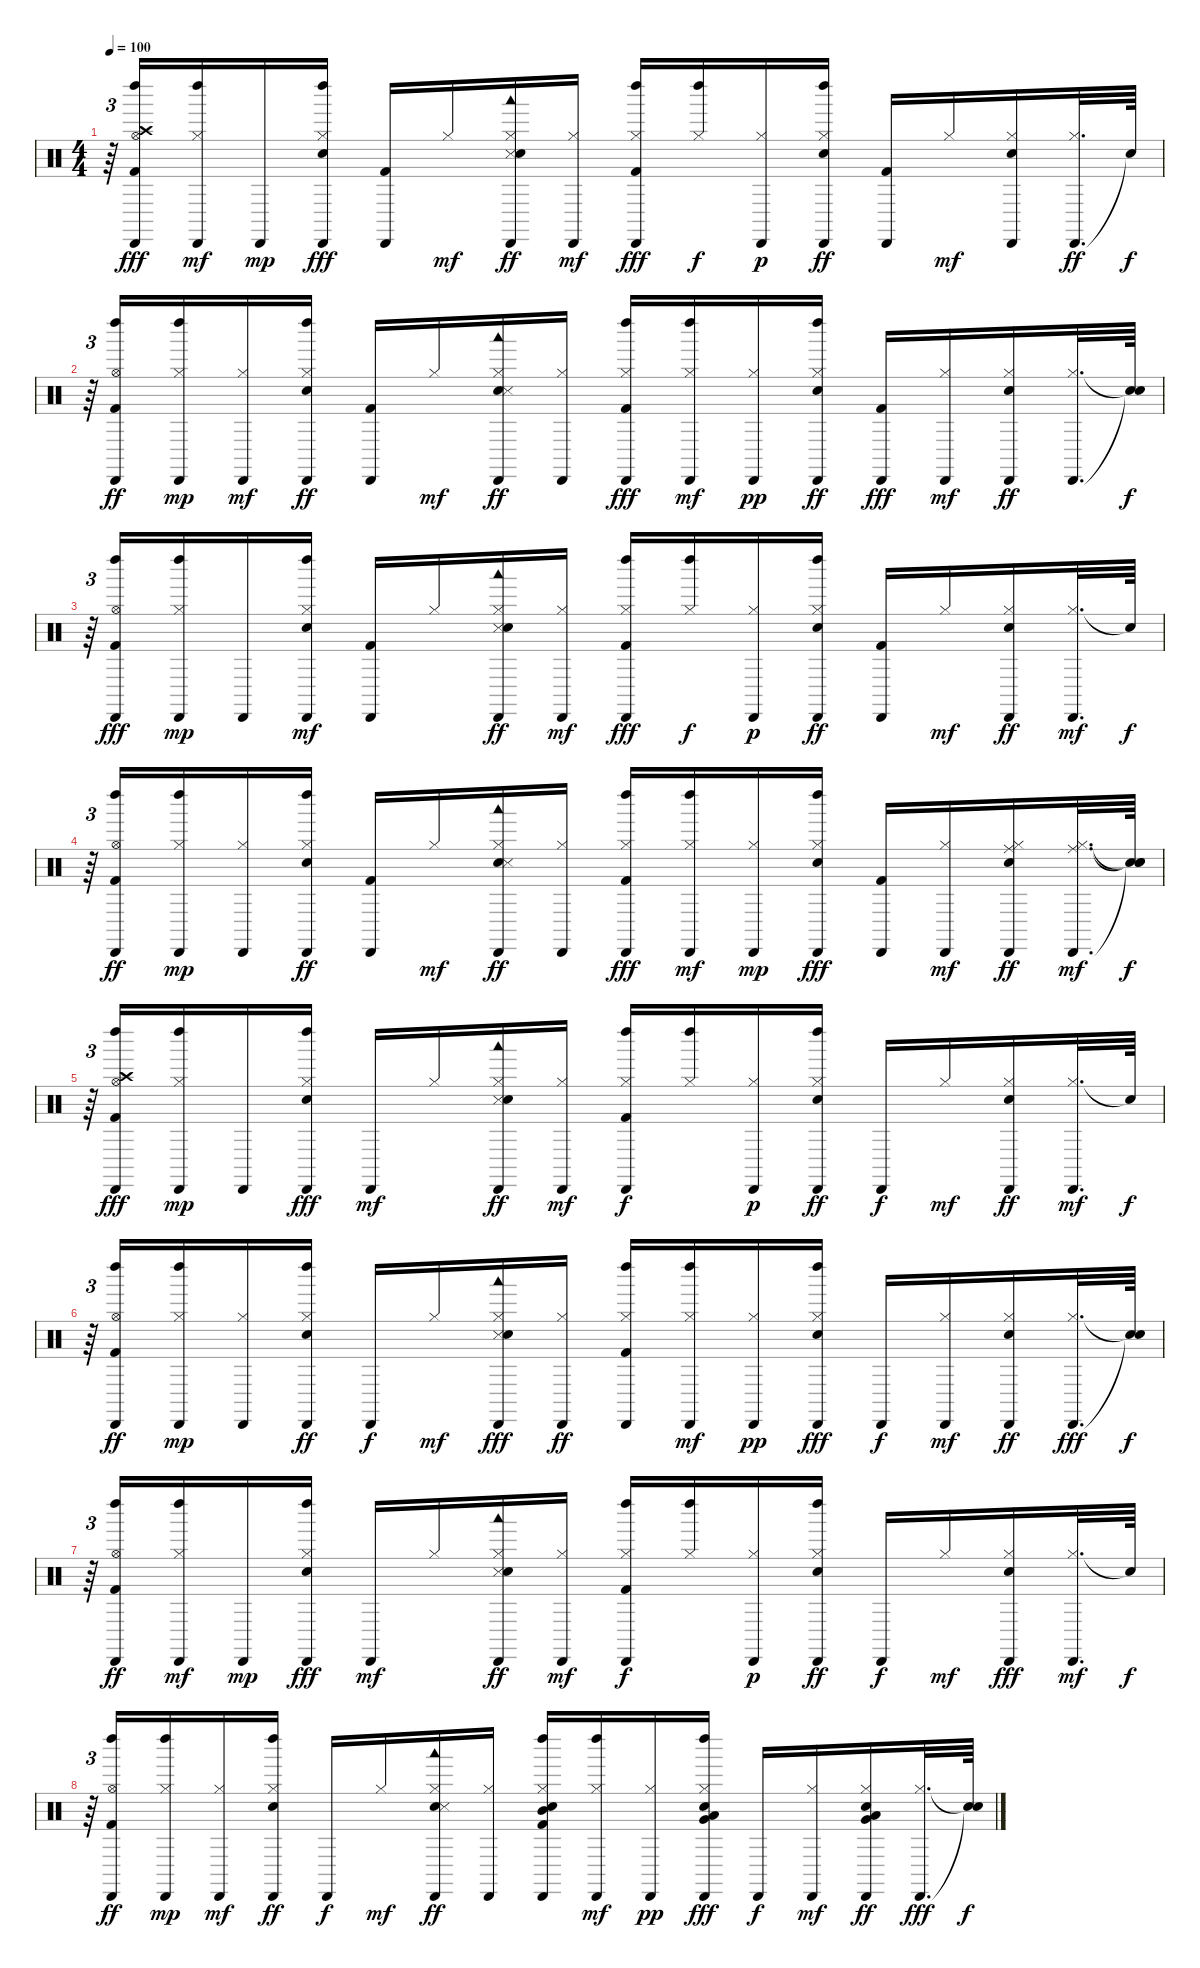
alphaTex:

\track "" {instrument percussion}
\staff {score}
\articulation defaults
\ts (4 4)
\tempo 100
\clef neutral
\ks c
r.64{tu (3 2) dy f} ("Hi-Hat (open)" "Kick (hit) 2" "Crash high (hit)" "Left Maraca (hit)" "Cabasa (hit)").16{dy fff} ("Left Maraca (hit)" "Hi-Hat (closed)" "Cabasa (hit)").16{dy mf} "Cabasa (hit)".16{dy mp} ("Cabasa (hit)" "Left Maraca (hit)" "Hi-Hat (closed)" "Electric Snare (hit)").16{dy fff} ("Cabasa (hit)" "Kick (hit) 2").16 "Hi-Hat (closed)".16{dy mf} ("Snare (side stick) 3" "Woodblock low (hit)" "Electric Snare (hit)" "Cabasa (hit)" "Hi-Hat (closed)").16{dy ff} ("Hi-Hat (closed)" "Cabasa (hit)").16{dy mf} ("Left Maraca (hit)" "Cabasa (hit)" "Kick (hit) 2" "Hi-Hat (closed)").16{dy fff} ("Left Maraca (hit)" "Hi-Hat (closed)").16{dy f} ("Cabasa (hit)" "Hi-Hat (closed)").16{dy p} ("Electric Snare (hit)" "Left Maraca (hit)" "Cabasa (hit)" "Hi-Hat (closed)").16{dy ff} ("Kick (hit) 2" "Cabasa (hit)").16 "Hi-Hat (closed)".16{dy mf} ("Electric Snare (hit)" "Hi-Hat (closed)" "Cabasa (hit)").16 ("Cabasa (hit)" "Hi-Hat (closed)").32{d dy ff} "Snare (hit)"{t}.64{dy f} |
r.64{tu (3 2)} ("Hi-Hat (open)" "Kick (hit) 2" "Cabasa (hit)" "Left Maraca (hit)").16{dy ff} ("Hi-Hat (closed)" "Cabasa (hit)" "Left Maraca (hit)").16{dy mp} ("Cabasa (hit)" "Hi-Hat (closed)").16{dy mf} ("Hi-Hat (closed)" "Left Maraca (hit)" "Cabasa (hit)" "Electric Snare (hit)").16{dy ff} ("Cabasa (hit)" "Kick (hit) 2").16 "Hi-Hat (closed)".16{dy mf} ("Electric Snare (hit)" "Hi-Hat (closed)" "Snare (side stick) 3" "Cabasa (hit)" "Woodblock low (hit)").16{dy ff} ("Cabasa (hit)" "Hi-Hat (closed)").16 ("Kick (hit) 2" "Hi-Hat (closed)" "Cabasa (hit)" "Left Maraca (hit)").16{dy fff} ("Hi-Hat (closed)" "Cabasa (hit)" "Left Maraca (hit)").16{dy mf} ("Cabasa (hit)" "Hi-Hat (closed)").16{dy pp} ("Hi-Hat (closed)" "Electric Snare (hit)" "Cabasa (hit)" "Left Maraca (hit)").16{dy ff} ("Cabasa (hit)" "Kick (hit) 2").16{dy fff} ("Hi-Hat (closed)" "Cabasa (hit)").16{dy mf} ("Cabasa (hit)" "Electric Snare (hit)" "Hi-Hat (closed)").16{dy ff} ("Hi-Hat (closed)" "Cabasa (hit)").32{d} ("Snare (hit)"{t} "Snare (hit)"{t}).64{dy f} |
r.64{tu (3 2)} ("Cabasa (hit)" "Hi-Hat (open)" "Kick (hit) 2" "Left Maraca (hit)").16{dy fff} ("Cabasa (hit)" "Hi-Hat (closed)" "Left Maraca (hit)").16{dy mp} "Cabasa (hit)".16 ("Cabasa (hit)" "Hi-Hat (closed)" "Electric Snare (hit)" "Left Maraca (hit)").16{dy mf} ("Kick (hit) 2" "Cabasa (hit)").16 "Hi-Hat (closed)".16 ("Snare (side stick) 3" "Electric Snare (hit)" "Hi-Hat (closed)" "Cabasa (hit)" "Woodblock low (hit)").16{dy ff} ("Hi-Hat (closed)" "Cabasa (hit)").16{dy mf} ("Cabasa (hit)" "Hi-Hat (closed)" "Kick (hit) 2" "Left Maraca (hit)").16{dy fff} ("Hi-Hat (closed)" "Left Maraca (hit)").16{dy f} ("Cabasa (hit)" "Hi-Hat (closed)").16{dy p} ("Hi-Hat (closed)" "Left Maraca (hit)" "Cabasa (hit)" "Electric Snare (hit)").16{dy ff} ("Kick (hit) 2" "Cabasa (hit)").16 "Hi-Hat (closed)".16{dy mf} ("Cabasa (hit)" "Electric Snare (hit)" "Hi-Hat (closed)").16{dy ff} ("Hi-Hat (closed)" "Cabasa (hit)").32{d dy mf} "Snare (hit)"{t}.64{dy f} |
r.64{tu (3 2)} ("Hi-Hat (open)" "Cabasa (hit)" "Kick (hit) 2" "Left Maraca (hit)").16{dy ff} ("Cabasa (hit)" "Left Maraca (hit)" "Hi-Hat (closed)").16{dy mp} ("Hi-Hat (closed)" "Cabasa (hit)").16 ("Electric Snare (hit)" "Left Maraca (hit)" "Cabasa (hit)" "Hi-Hat (closed)").16{dy ff} ("Cabasa (hit)" "Kick (hit) 2").16 "Hi-Hat (closed)".16{dy mf} ("Hi-Hat (closed)" "Electric Snare (hit)" "Snare (side stick) 3" "Cabasa (hit)" "Woodblock low (hit)").16{dy ff} ("Hi-Hat (closed)" "Cabasa (hit)").16 ("Left Maraca (hit)" "Kick (hit) 2" "Hi-Hat (closed)" "Cabasa (hit)").16{dy fff} ("Cabasa (hit)" "Left Maraca (hit)" "Hi-Hat (closed)").16{dy mf} ("Hi-Hat (closed)" "Cabasa (hit)").16{dy mp} ("Left Maraca (hit)" "Hi-Hat (closed)" "Cabasa (hit)" "Electric Snare (hit)").16{dy fff} ("Kick (hit) 2" "Cabasa (hit)").16 ("Cabasa (hit)" "Hi-Hat (closed)").16{dy mf} ("Electric Snare (hit)" "Hi-Hat (closed)" "Ride (middle)" "Cabasa (hit)").16{dy ff} ("Hi-Hat (closed)" "Cabasa (hit)" "Ride (middle)").32{d dy mf} ("Snare (hit)"{t} "Snare (hit)"{t} "Snare (hit)"{t}).64{dy f} |
r.64{tu (3 2)} ("Cabasa (hit)" "Left Maraca (hit)" "Hi-Hat (open)" "Kick (hit) 2" "Crash high (hit)").16{dy fff} ("Cabasa (hit)" "Left Maraca (hit)" "Hi-Hat (closed)").16{dy mp} "Cabasa (hit)".16 ("Cabasa (hit)" "Left Maraca (hit)" "Hi-Hat (closed)" "Electric Snare (hit)").16{dy fff} "Cabasa (hit)".16{dy mf} "Hi-Hat (closed)".16 ("Woodblock low (hit)" "Cabasa (hit)" "Hi-Hat (closed)" "Snare (side stick) 3" "Electric Snare (hit)").16{dy ff} ("Cabasa (hit)" "Hi-Hat (closed)").16{dy mf} ("Left Maraca (hit)" "Hi-Hat (closed)" "Kick (hit) 2" "Cabasa (hit)").16{dy f} ("Hi-Hat (closed)" "Left Maraca (hit)").16 ("Cabasa (hit)" "Hi-Hat (closed)").16{dy p} ("Hi-Hat (closed)" "Electric Snare (hit)" "Cabasa (hit)" "Left Maraca (hit)").16{dy ff} "Cabasa (hit)".16{dy f} "Hi-Hat (closed)".16{dy mf} ("Cabasa (hit)" "Electric Snare (hit)" "Hi-Hat (closed)").16{dy ff} ("Hi-Hat (closed)" "Cabasa (hit)").32{d dy mf} "Snare (hit)"{t}.64{dy f} |
r.64{tu (3 2)} ("Hi-Hat (open)" "Cabasa (hit)" "Kick (hit) 2" "Left Maraca (hit)").16{dy ff} ("Cabasa (hit)" "Left Maraca (hit)" "Hi-Hat (closed)").16{dy mp} ("Hi-Hat (closed)" "Cabasa (hit)").16 ("Left Maraca (hit)" "Cabasa (hit)" "Electric Snare (hit)" "Hi-Hat (closed)").16{dy ff} "Cabasa (hit)".16{dy f} "Hi-Hat (closed)".16{dy mf} ("Snare (side stick) 3" "Woodblock low (hit)" "Hi-Hat (closed)" "Cabasa (hit)" "Electric Snare (hit)").16{dy fff} ("Hi-Hat (closed)" "Cabasa (hit)").16{dy ff} ("Kick (hit) 2" "Cabasa (hit)" "Hi-Hat (closed)" "Left Maraca (hit)").16 ("Cabasa (hit)" "Left Maraca (hit)" "Hi-Hat (closed)").16{dy mf} ("Cabasa (hit)" "Hi-Hat (closed)").16{dy pp} ("Cabasa (hit)" "Hi-Hat (closed)" "Left Maraca (hit)" "Electric Snare (hit)").16{dy fff} "Cabasa (hit)".16{dy f} ("Cabasa (hit)" "Hi-Hat (closed)").16{dy mf} ("Cabasa (hit)" "Electric Snare (hit)" "Hi-Hat (closed)").16{dy ff} ("Cabasa (hit)" "Hi-Hat (closed)").32{d dy fff} ("Snare (hit)"{t} "Snare (hit)"{t}).64{dy f} |
r.64{tu (3 2)} ("Left Maraca (hit)" "Cabasa (hit)" "Hi-Hat (open)" "Kick (hit) 2").16{dy ff} ("Hi-Hat (closed)" "Left Maraca (hit)" "Cabasa (hit)").16{dy mf} "Cabasa (hit)".16{dy mp} ("Left Maraca (hit)" "Hi-Hat (closed)" "Electric Snare (hit)" "Cabasa (hit)").16{dy fff} "Cabasa (hit)".16{dy mf} "Hi-Hat (closed)".16 ("Cabasa (hit)" "Woodblock low (hit)" "Snare (side stick) 3" "Hi-Hat (closed)" "Electric Snare (hit)").16{dy ff} ("Cabasa (hit)" "Hi-Hat (closed)").16{dy mf} ("Cabasa (hit)" "Left Maraca (hit)" "Kick (hit) 2" "Hi-Hat (closed)").16{dy f} ("Left Maraca (hit)" "Hi-Hat (closed)").16 ("Cabasa (hit)" "Hi-Hat (closed)").16{dy p} ("Hi-Hat (closed)" "Electric Snare (hit)" "Cabasa (hit)" "Left Maraca (hit)").16{dy ff} "Cabasa (hit)".16{dy f} "Hi-Hat (closed)".16{dy mf} ("Hi-Hat (closed)" "Cabasa (hit)" "Electric Snare (hit)").16{dy fff} ("Hi-Hat (closed)" "Cabasa (hit)").32{d dy mf} "Snare (hit)"{t}.64{dy f} |
r.64{tu (3 2)} ("Left Maraca (hit)" "Cabasa (hit)" "Kick (hit) 2" "Hi-Hat (open)").16{dy ff} ("Left Maraca (hit)" "Hi-Hat (closed)" "Cabasa (hit)").16{dy mp} ("Cabasa (hit)" "Hi-Hat (closed)").16{dy mf} ("Electric Snare (hit)" "Hi-Hat (closed)" "Left Maraca (hit)" "Cabasa (hit)").16{dy ff} "Cabasa (hit)".16{dy f} "Hi-Hat (closed)".16{dy mf} ("Electric Snare (hit)" "Cabasa (hit)" "Snare (side stick) 3" "Woodblock low (hit)" "Hi-Hat (closed)").16{dy ff} ("Hi-Hat (closed)" "Cabasa (hit)").16 ("Mid Tom (hit)" "Hi-Hat (closed)" "Kick (hit) 2" "Electric Snare (hit)" "Left Maraca (hit)" "Cabasa (hit)").16 ("Hi-Hat (closed)" "Left Maraca (hit)" "Cabasa (hit)").16{dy mf} ("Cabasa (hit)" "Hi-Hat (closed)").16{dy pp} ("Cabasa (hit)" "Low Tom (hit)" "Electric Snare (hit)" "Left Maraca (hit)" "Hi-Hat (closed)" "Very Low Tom (hit)").16{dy fff} "Cabasa (hit)".16{dy f} ("Hi-Hat (closed)" "Cabasa (hit)").16{dy mf} ("Very Low Tom (hit)" "Electric Snare (hit)" "Low Floor Tom (hit)" "Hi-Hat (closed)" "Cabasa (hit)").16{dy ff} ("Cabasa (hit)" "Hi-Hat (closed)").32{d dy fff} ("Snare (hit)"{t} "Snare (hit)"{t}).64{dy f}
